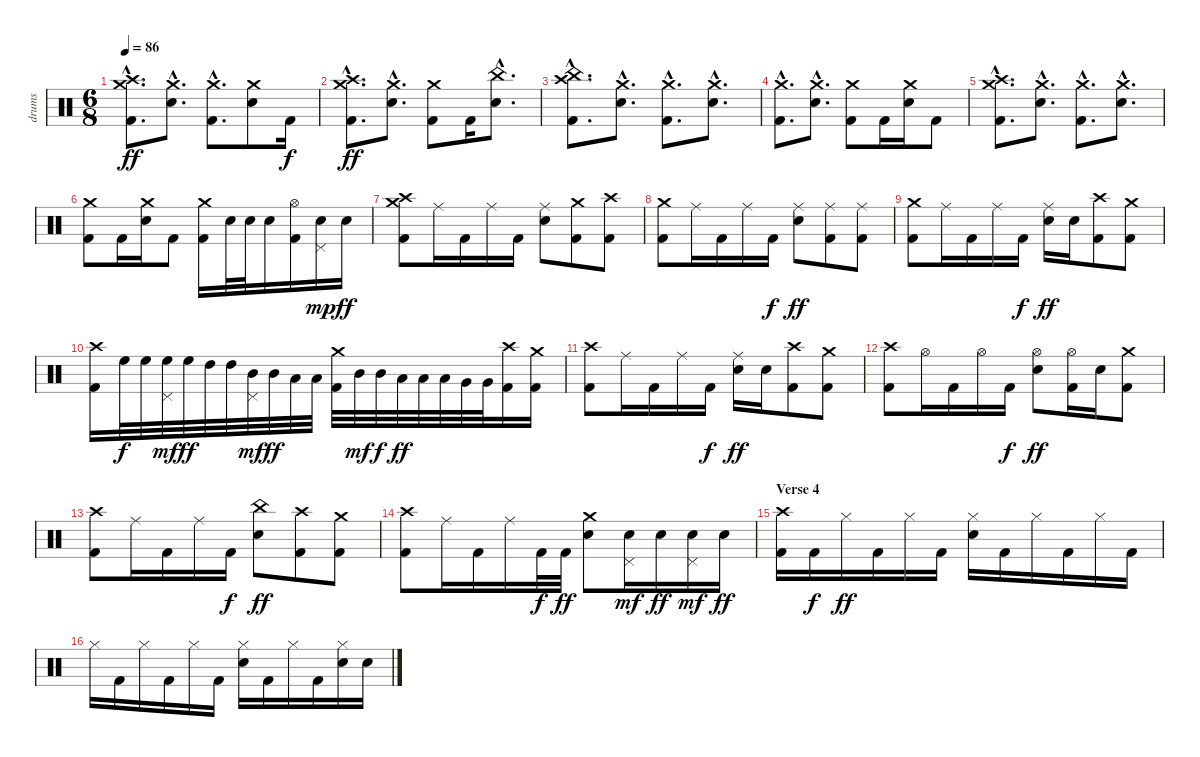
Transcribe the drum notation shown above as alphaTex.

\track ("drums" "drums") {instrument percussion}
\staff {score}
\articulation defaults
\ts (6 8)
\tempo 86
\clef neutral
\ks c
("Crash medium (hit)"{hac} "Crash high (hit)"{hac} "Kick (hit) 2"{hac}).8{d dy ff} ("Crash medium (hit)"{hac} "Snare (hit) 2"{hac}).8{d} ("Crash medium (hit)"{hac} "Kick (hit) 2"{hac}).8{d} ("Crash medium (hit)" "Snare (hit) 2").8 "Kick (hit) 2".16{dy f} |
("Crash medium (hit)"{hac} "Crash high (hit)"{hac} "Kick (hit) 2"{hac}).8{d dy ff} ("Crash medium (hit)"{hac} "Snare (hit) 2"{hac}).8{d} ("Crash medium (hit)" "Kick (hit) 2").8 "Kick (hit) 2".16 ("China (hit)"{hac} "Snare (hit) 2"{hac}).8{d} |
("Crash high (hit)"{hac} "China (hit)"{hac} "Kick (hit) 2"{hac}).8{d} ("Crash medium (hit)"{hac} "Snare (hit) 2"{hac}).8{d} ("Crash medium (hit)"{hac} "Kick (hit) 2"{hac}).8{d} ("Crash medium (hit)"{hac} "Snare (hit) 2"{hac}).8{d} |
("Crash medium (hit)"{hac} "Kick (hit) 2"{hac}).8{d} ("Crash medium (hit)"{hac} "Snare (hit) 2"{hac}).8{d} ("Crash medium (hit)" "Kick (hit) 2").8 "Kick (hit) 2".16 ("Crash medium (hit)" "Snare (hit) 2").16 "Kick (hit) 2".8 |
("Crash medium (hit)"{hac} "Crash high (hit)"{hac} "Kick (hit) 2"{hac}).8{d} ("Crash medium (hit)"{hac} "Snare (hit) 2"{hac}).8{d} ("Crash medium (hit)"{hac} "Kick (hit) 2"{hac}).8{d} ("Crash medium (hit)"{hac} "Snare (hit) 2"{hac}).8{d} |
("Crash medium (hit)" "Kick (hit) 2").8 "Kick (hit) 2".16 ("Crash medium (hit)" "Snare (hit) 2").16 "Kick (hit) 2".8 ("Crash medium (hit)" "Kick (hit) 2").16 "Snare (hit) 2".32 "Snare (hit) 2".32 "Snare (hit) 2".16 ("Hi-Hat (open)" "Kick (hit) 2").16 ("Snare (hit) 2" "Pedal Hi-Hat (hit)").16{dy mp} "Snare (hit) 2".16{dy ff} |
("Crash high (hit)" "Crash medium (hit)" "Kick (hit) 2").8 "Ride (middle)".16 "Kick (hit) 2".16 "Ride (middle)".16 "Kick (hit) 2".16 ("Ride (middle)" "Snare (hit) 2").8 ("Crash medium (hit)" "Kick (hit) 2").8 ("Crash high (hit)" "Kick (hit) 2").8 |
("Crash medium (hit)" "Kick (hit) 2").8 "Ride (middle)".16 "Kick (hit) 2".16 "Ride (middle)".16 "Kick (hit) 2".16{dy f} ("Ride (middle)" "Snare (hit) 2").8{dy ff} ("Ride (middle)" "Kick (hit) 2").8 ("Ride (middle)" "Kick (hit) 2").8 |
("Crash medium (hit)" "Kick (hit) 2").8 "Ride (middle)".16 "Kick (hit) 2".16 "Ride (middle)".16 "Kick (hit) 2".16{dy f} ("Ride (middle)" "Snare (hit) 2").16{dy ff} "Snare (hit) 2".16 ("Crash high (hit)" "Kick (hit) 2").8 ("Crash medium (hit)" "Kick (hit) 2").8 |
("Crash high (hit)" "Kick (hit) 2").16 "High Floor Tom (hit)".32{dy f} "High Floor Tom (hit)".32 ("High Floor Tom (hit)" "Pedal Hi-Hat (hit)").32{dy mf} "High Floor Tom (hit)".32{dy ff} "High Tom (hit)".32 "High Tom (hit)".32 ("Mid Tom (hit)" "Pedal Hi-Hat (hit)").32{dy mf} "Mid Tom (hit)".32{dy ff} "Low Tom (hit)".32 "Low Tom (hit)".32 ("Crash medium (hit)" "Kick (hit) 2").32 "Mid Tom (hit)".32{dy mf} "Mid Tom (hit)".32{dy f} "Low Tom (hit)".32{dy ff} "Low Tom (hit)".32 "Low Tom (hit)".32 "Very Low Tom (hit)".32 "Very Low Tom (hit)".32 ("Crash high (hit)" "Kick (hit) 2").16 ("Crash medium (hit)" "Kick (hit) 2").16 |
("Crash high (hit)" "Kick (hit) 2").8 "Ride (middle)".16 "Kick (hit) 2".16 "Ride (middle)".16 "Kick (hit) 2".16{dy f} ("Ride (middle)" "Snare (hit) 2").16{dy ff} "Snare (hit) 2".16 ("Crash high (hit)" "Kick (hit) 2").8 ("Crash medium (hit)" "Kick (hit) 2").8 |
("Crash high (hit)" "Kick (hit) 2").8 "Hi-Hat (open)".16 "Kick (hit) 2".16 "Hi-Hat (open)".16 "Kick (hit) 2".16{dy f} ("Hi-Hat (open)" "Snare (hit) 2").8{dy ff} ("Hi-Hat (open)" "Kick (hit) 2").16 "Snare (hit) 2".16 ("Crash medium (hit)" "Kick (hit) 2").8 |
("Crash high (hit)" "Kick (hit) 2").8 "Ride (middle)".16 "Kick (hit) 2".16 "Ride (middle)".16 "Kick (hit) 2".16{dy f} ("China (hit)" "Snare (hit) 2").8{dy ff} ("Crash high (hit)" "Kick (hit) 2").8 ("Crash medium (hit)" "Kick (hit) 2").8 |
("Crash high (hit)" "Kick (hit) 2").8 "Ride (middle)".16 "Kick (hit) 2".16 "Ride (middle)".16 "Kick (hit) 2".32{dy f} "Kick (hit) 2".32{dy ff} ("Crash medium (hit)" "Snare (hit) 2").8 ("Snare (hit) 2" "Pedal Hi-Hat (hit)").16{dy mf} "Snare (hit) 2".16{dy ff} ("Snare (hit) 2" "Pedal Hi-Hat (hit)").16{dy mf} "Snare (hit) 2".16{dy ff} |
\section ("" "Verse 4")
("Crash high (hit)" "Kick (hit) 2").16 "Kick (hit) 2".16{dy f} "Hi-Hat (closed)".16{dy ff} "Kick (hit) 2".16 "Hi-Hat (closed)".16 "Kick (hit) 2".16 ("Hi-Hat (closed)" "Snare (hit) 2").16 "Kick (hit) 2".16 "Hi-Hat (closed)".16 "Kick (hit) 2".16 "Hi-Hat (closed)".16 "Kick (hit) 2".16 |
"Hi-Hat (closed)".16 "Kick (hit) 2".16 "Hi-Hat (closed)".16 "Kick (hit) 2".16 "Hi-Hat (closed)".16 "Kick (hit) 2".16 ("Hi-Hat (closed)" "Snare (hit) 2").16 "Kick (hit) 2".16 "Hi-Hat (closed)".16 "Kick (hit) 2".16 ("Hi-Hat (closed)" "Snare (hit) 2").16 "Snare (hit) 2".16
